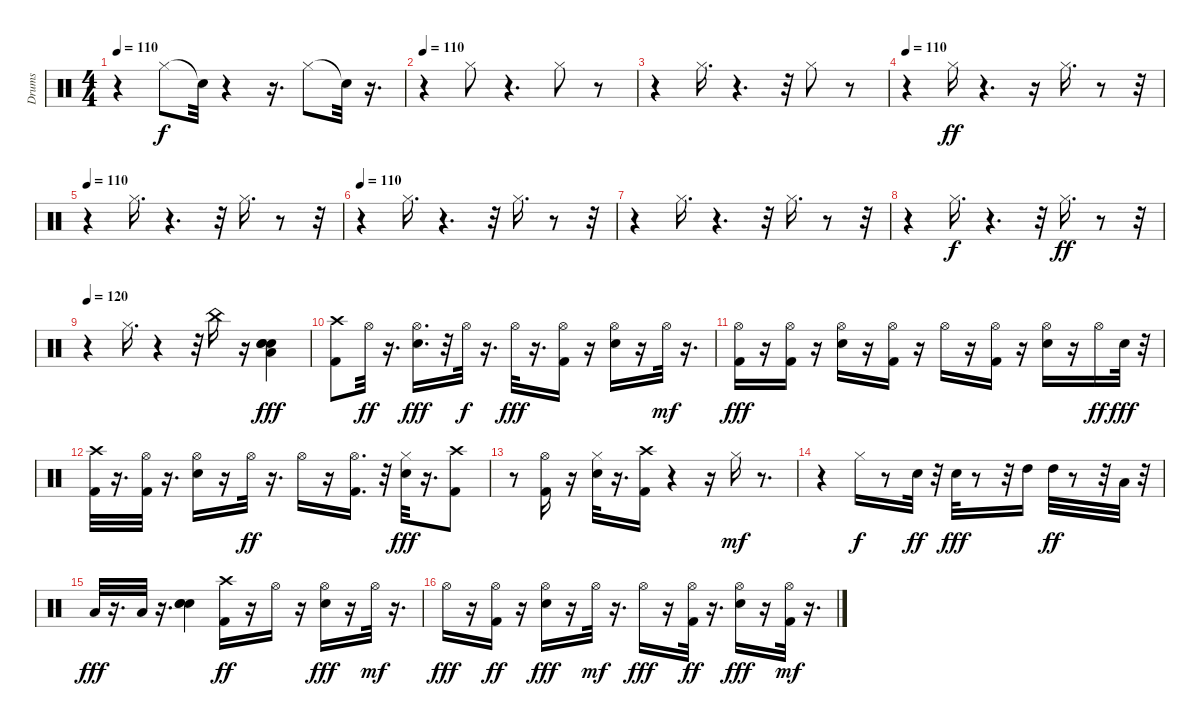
\track ("Drums" "Drums") {instrument percussion}
\staff {score}
\articulation defaults
\ts (4 4)
\tempo 110
\clef neutral
\ks c
r.4{dy f} "Hi-Hat (closed)".8 "Snare (hit)"{t}.32 r.4 r.16{d} "Hi-Hat (closed)".8 "Snare (hit)"{t}.32 r.16{d} |
\tempo 110
r.4 "Hi-Hat (closed)".8 r.4{d} "Hi-Hat (closed)".8 r.8 |
r.4 "Hi-Hat (closed)".16{d} r.4{d} r.32 "Hi-Hat (closed)".8 r.8 |
\tempo 110
r.4 "Hi-Hat (closed)".16{dy ff} r.4{d} r.16 "Hi-Hat (closed)".16{d} r.8 r.32 |
\tempo 110
r.4 "Hi-Hat (closed)".16{d} r.4{d} r.32 "Hi-Hat (closed)".16{d} r.8 r.32 |
\tempo 110
r.4 "Hi-Hat (closed)".16{d} r.4{d} r.32 "Hi-Hat (closed)".16{d} r.8 r.32 |
r.4 "Hi-Hat (closed)".16{d} r.4{d} r.32 "Hi-Hat (closed)".16{d} r.8 r.32 |
r.4 "Hi-Hat (closed)".16{d dy f} r.4{d} r.32 "Hi-Hat (closed)".16{d dy ff} r.8 r.32 |
\tempo 120
r.4 "Hi-Hat (closed)".16{d} r.4 r.32 "China (hit)".16 r.16 ("Electric Snare (hit)" "Electric Snare (hit)" "Low Floor Tom (hit)" "Electric Snare (hit)").4{dy fff} |
("Crash high (hit)" "Kick (hit) 2").8 "Hi-Hat (open)".32{dy ff} r.16{d} ("Hi-Hat (open)" "Electric Snare (hit)").16{d dy fff} r.32 "Hi-Hat (open)".32{dy f} r.16{d} "Hi-Hat (open)".32{dy fff} r.16{d} ("Hi-Hat (open)" "Kick (hit) 2").16 r.16 ("Hi-Hat (open)" "Electric Snare (hit)").16 r.16 "Hi-Hat (open)".32{dy mf} r.16{d} |
("Hi-Hat (open)" "Kick (hit) 2").16{dy fff} r.16 ("Hi-Hat (open)" "Kick (hit) 2").16 r.16 ("Hi-Hat (open)" "Electric Snare (hit)").16 r.16 ("Hi-Hat (open)" "Kick (hit) 2").16 r.16 "Hi-Hat (open)".16 r.16 ("Hi-Hat (open)" "Kick (hit) 2").16 r.16 ("Hi-Hat (open)" "Electric Snare (hit)").16 r.16 "Hi-Hat (open)".16{dy ff} "Electric Snare (hit)".32{dy fff} r.32 |
("Crash high (hit)" "Kick (hit) 2").32 r.16{d} ("Hi-Hat (open)" "Kick (hit) 2").32 r.16{d} ("Hi-Hat (open)" "Electric Snare (hit)").16 r.16 "Hi-Hat (open)".32{dy ff} r.16{d} "Hi-Hat (open)".16 r.16 ("Hi-Hat (open)" "Kick (hit) 2").16{d} r.32 ("Hi-Hat (closed)" "Electric Snare (hit)").32{dy fff} r.16{d} ("Crash high (hit)" "Kick (hit) 2").8 |
r.8 ("Hi-Hat (open)" "Kick (hit) 2").16 r.16 ("Hi-Hat (closed)" "Electric Snare (hit)").32 r.16{d} ("Crash high (hit)" "Kick (hit) 2").16 r.4 r.16 "Hi-Hat (closed)".16{dy mf} r.8{d} |
r.4 "Hi-Hat (closed)".16{dy f} r.8 "Electric Snare (hit)".32{dy ff} r.32 "Electric Snare (hit)".32{dy fff} r.8 r.32 "High Tom (hit)".16 "High Tom (hit)".32{dy ff} r.8 r.32 "Low Tom (hit)".32 r.32 |
"Low Tom (hit)".32{dy fff} r.16{d} "Low Floor Tom (hit)".32 r.16{d} ("Electric Snare (hit)" "Electric Snare (hit)" "Electric Snare (hit)").4 ("Kick (hit) 2" "Crash high (hit)").16{dy ff} r.16 "Hi-Hat (open)".16 r.16 ("Electric Snare (hit)" "Hi-Hat (open)").16{dy fff} r.16 "Hi-Hat (open)".32{dy mf} r.16{d} |
"Hi-Hat (open)".16{dy fff} r.16 ("Kick (hit) 2" "Hi-Hat (open)").16{dy ff} r.16 ("Electric Snare (hit)" "Hi-Hat (open)").16{dy fff} r.16 "Hi-Hat (open)".32{dy mf} r.16{d} "Hi-Hat (open)".16{dy fff} r.16 ("Kick (hit) 2" "Hi-Hat (open)").32{dy ff} r.16{d} ("Electric Snare (hit)" "Hi-Hat (open)").16{dy fff} r.16 ("Kick (hit) 2" "Hi-Hat (open)").32{dy mf} r.16{d}
